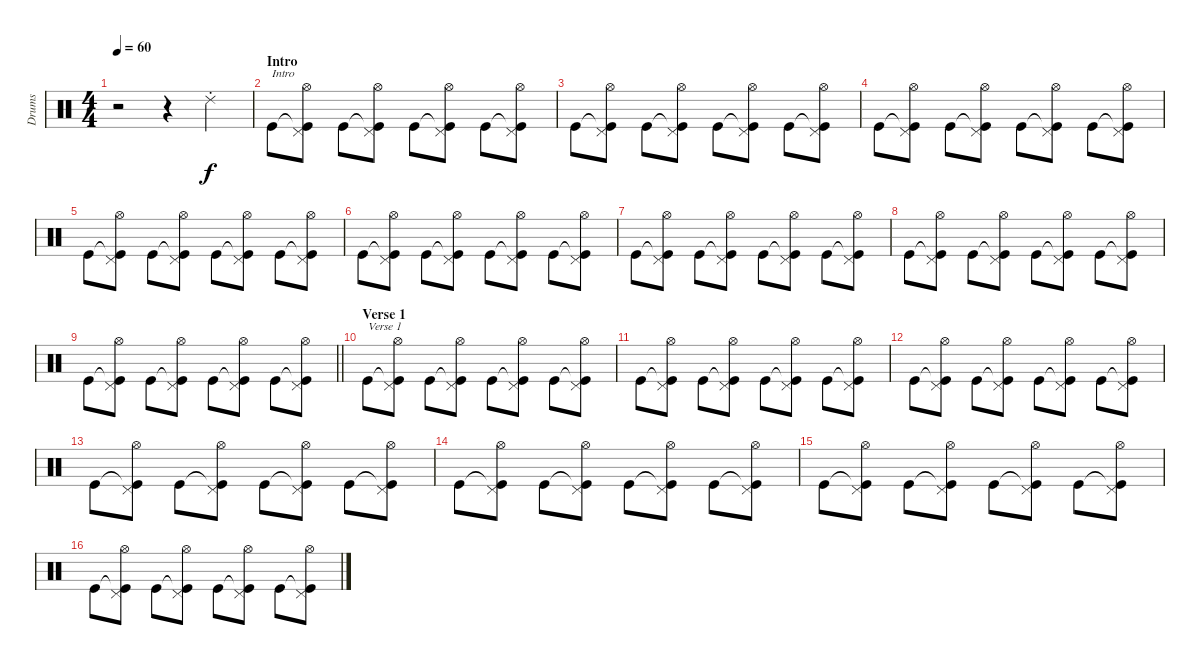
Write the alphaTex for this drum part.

\track ("Drums" "Drums") {instrument percussion}
\staff {score}
\articulation defaults
\ts (4 4)
\tempo 60
\clef neutral
\ks c
r.2{dy f} r.4 "Ride (choke) 2".4 |
\section ("" "Intro")
"Kick (hit)".8{txt "Intro"} ("Kick (hit)"{t} "Pedal Hi-Hat (hit)" "Hi-Hat (open)").8 "Kick (hit)".8 ("Kick (hit)"{t} "Pedal Hi-Hat (hit)" "Hi-Hat (open)").8 "Kick (hit)".8 ("Kick (hit)"{t} "Pedal Hi-Hat (hit)" "Hi-Hat (open)").8 "Kick (hit)".8 ("Kick (hit)"{t} "Pedal Hi-Hat (hit)" "Hi-Hat (open)").8 |
"Kick (hit)".8 ("Kick (hit)"{t} "Pedal Hi-Hat (hit)" "Hi-Hat (open)").8 "Kick (hit)".8 ("Kick (hit)"{t} "Pedal Hi-Hat (hit)" "Hi-Hat (open)").8 "Kick (hit)".8 ("Kick (hit)"{t} "Pedal Hi-Hat (hit)" "Hi-Hat (open)").8 "Kick (hit)".8 ("Kick (hit)"{t} "Pedal Hi-Hat (hit)" "Hi-Hat (open)").8 |
"Kick (hit)".8 ("Kick (hit)"{t} "Pedal Hi-Hat (hit)" "Hi-Hat (open)").8 "Kick (hit)".8 ("Kick (hit)"{t} "Pedal Hi-Hat (hit)" "Hi-Hat (open)").8 "Kick (hit)".8 ("Kick (hit)"{t} "Pedal Hi-Hat (hit)" "Hi-Hat (open)").8 "Kick (hit)".8 ("Kick (hit)"{t} "Pedal Hi-Hat (hit)" "Hi-Hat (open)").8 |
"Kick (hit)".8 ("Kick (hit)"{t} "Pedal Hi-Hat (hit)" "Hi-Hat (open)").8 "Kick (hit)".8 ("Kick (hit)"{t} "Pedal Hi-Hat (hit)" "Hi-Hat (open)").8 "Kick (hit)".8 ("Kick (hit)"{t} "Pedal Hi-Hat (hit)" "Hi-Hat (open)").8 "Kick (hit)".8 ("Kick (hit)"{t} "Pedal Hi-Hat (hit)" "Hi-Hat (open)").8 |
"Kick (hit)".8 ("Kick (hit)"{t} "Pedal Hi-Hat (hit)" "Hi-Hat (open)").8 "Kick (hit)".8 ("Kick (hit)"{t} "Pedal Hi-Hat (hit)" "Hi-Hat (open)").8 "Kick (hit)".8 ("Kick (hit)"{t} "Pedal Hi-Hat (hit)" "Hi-Hat (open)").8 "Kick (hit)".8 ("Kick (hit)"{t} "Pedal Hi-Hat (hit)" "Hi-Hat (open)").8 |
"Kick (hit)".8 ("Kick (hit)"{t} "Pedal Hi-Hat (hit)" "Hi-Hat (open)").8 "Kick (hit)".8 ("Kick (hit)"{t} "Pedal Hi-Hat (hit)" "Hi-Hat (open)").8 "Kick (hit)".8 ("Kick (hit)"{t} "Pedal Hi-Hat (hit)" "Hi-Hat (open)").8 "Kick (hit)".8 ("Kick (hit)"{t} "Pedal Hi-Hat (hit)" "Hi-Hat (open)").8 |
"Kick (hit)".8 ("Kick (hit)"{t} "Pedal Hi-Hat (hit)" "Hi-Hat (open)").8 "Kick (hit)".8 ("Kick (hit)"{t} "Pedal Hi-Hat (hit)" "Hi-Hat (open)").8 "Kick (hit)".8 ("Kick (hit)"{t} "Pedal Hi-Hat (hit)" "Hi-Hat (open)").8 "Kick (hit)".8 ("Kick (hit)"{t} "Pedal Hi-Hat (hit)" "Hi-Hat (open)").8 |
\barLineRight lightlight "Kick (hit)".8
("Kick (hit)"{t} "Pedal Hi-Hat (hit)" "Hi-Hat (open)").8 "Kick (hit)".8 ("Kick (hit)"{t} "Pedal Hi-Hat (hit)" "Hi-Hat (open)").8 "Kick (hit)".8 ("Kick (hit)"{t} "Pedal Hi-Hat (hit)" "Hi-Hat (open)").8 "Kick (hit)".8 ("Kick (hit)"{t} "Pedal Hi-Hat (hit)" "Hi-Hat (open)").8 |
\section ("" "Verse 1")
"Kick (hit)".8{txt "Verse 1"} ("Kick (hit)"{t} "Pedal Hi-Hat (hit)" "Hi-Hat (open)").8 "Kick (hit)".8 ("Kick (hit)"{t} "Pedal Hi-Hat (hit)" "Hi-Hat (open)").8 "Kick (hit)".8 ("Kick (hit)"{t} "Pedal Hi-Hat (hit)" "Hi-Hat (open)").8 "Kick (hit)".8 ("Kick (hit)"{t} "Pedal Hi-Hat (hit)" "Hi-Hat (open)").8 |
"Kick (hit)".8 ("Kick (hit)"{t} "Pedal Hi-Hat (hit)" "Hi-Hat (open)").8 "Kick (hit)".8 ("Kick (hit)"{t} "Pedal Hi-Hat (hit)" "Hi-Hat (open)").8 "Kick (hit)".8 ("Kick (hit)"{t} "Pedal Hi-Hat (hit)" "Hi-Hat (open)").8 "Kick (hit)".8 ("Kick (hit)"{t} "Pedal Hi-Hat (hit)" "Hi-Hat (open)").8 |
"Kick (hit)".8 ("Kick (hit)"{t} "Pedal Hi-Hat (hit)" "Hi-Hat (open)").8 "Kick (hit)".8 ("Kick (hit)"{t} "Pedal Hi-Hat (hit)" "Hi-Hat (open)").8 "Kick (hit)".8 ("Kick (hit)"{t} "Pedal Hi-Hat (hit)" "Hi-Hat (open)").8 "Kick (hit)".8 ("Kick (hit)"{t} "Pedal Hi-Hat (hit)" "Hi-Hat (open)").8 |
"Kick (hit)".8 ("Kick (hit)"{t} "Pedal Hi-Hat (hit)" "Hi-Hat (open)").8 "Kick (hit)".8 ("Kick (hit)"{t} "Pedal Hi-Hat (hit)" "Hi-Hat (open)").8 "Kick (hit)".8 ("Kick (hit)"{t} "Pedal Hi-Hat (hit)" "Hi-Hat (open)").8 "Kick (hit)".8 ("Kick (hit)"{t} "Pedal Hi-Hat (hit)" "Hi-Hat (open)").8 |
"Kick (hit)".8 ("Kick (hit)"{t} "Pedal Hi-Hat (hit)" "Hi-Hat (open)").8 "Kick (hit)".8 ("Kick (hit)"{t} "Pedal Hi-Hat (hit)" "Hi-Hat (open)").8 "Kick (hit)".8 ("Kick (hit)"{t} "Pedal Hi-Hat (hit)" "Hi-Hat (open)").8 "Kick (hit)".8 ("Kick (hit)"{t} "Pedal Hi-Hat (hit)" "Hi-Hat (open)").8 |
"Kick (hit)".8 ("Kick (hit)"{t} "Pedal Hi-Hat (hit)" "Hi-Hat (open)").8 "Kick (hit)".8 ("Kick (hit)"{t} "Pedal Hi-Hat (hit)" "Hi-Hat (open)").8 "Kick (hit)".8 ("Kick (hit)"{t} "Pedal Hi-Hat (hit)" "Hi-Hat (open)").8 "Kick (hit)".8 ("Kick (hit)"{t} "Pedal Hi-Hat (hit)" "Hi-Hat (open)").8 |
"Kick (hit)".8 ("Kick (hit)"{t} "Pedal Hi-Hat (hit)" "Hi-Hat (open)").8 "Kick (hit)".8 ("Kick (hit)"{t} "Pedal Hi-Hat (hit)" "Hi-Hat (open)").8 "Kick (hit)".8 ("Kick (hit)"{t} "Pedal Hi-Hat (hit)" "Hi-Hat (open)").8 "Kick (hit)".8 ("Kick (hit)"{t} "Pedal Hi-Hat (hit)" "Hi-Hat (open)").8
